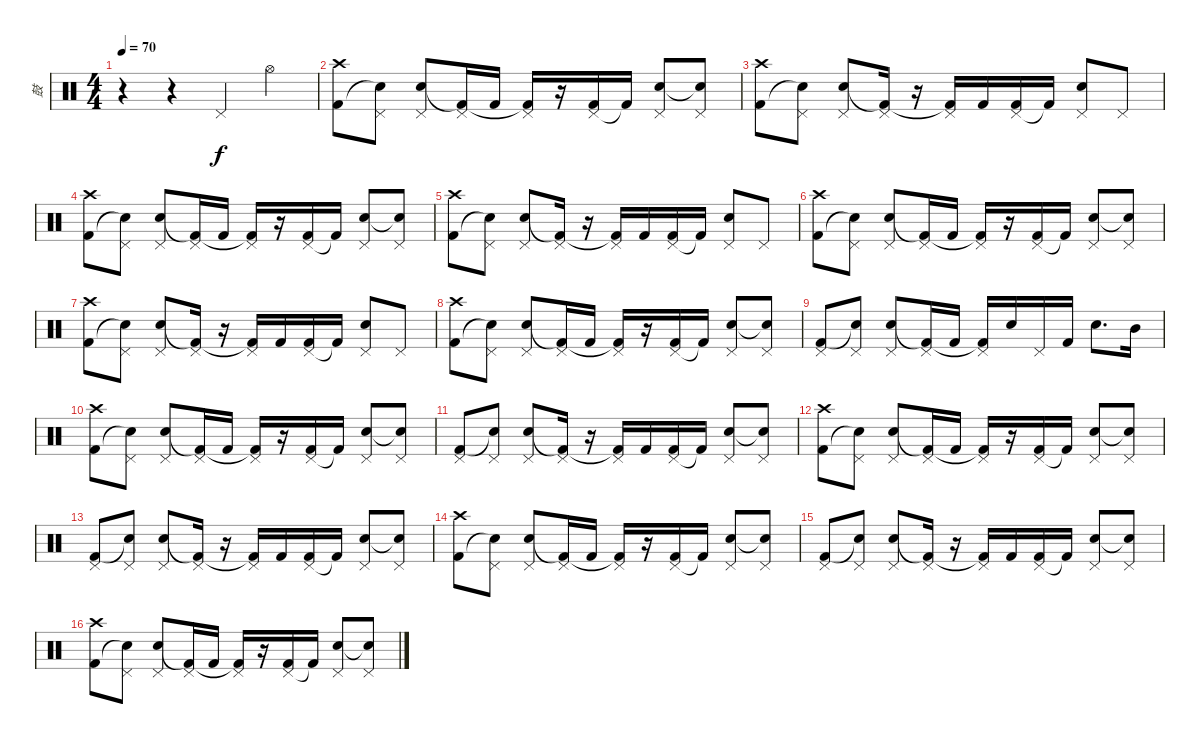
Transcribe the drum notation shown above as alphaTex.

\track ("鼓" "鼓") {instrument percussion}
\staff {score}
\articulation defaults
\ts (4 4)
\tempo 70
\clef neutral
\ks c
r.4{dy f} r.4 "Pedal Hi-Hat (hit)".4 "Hi-Hat (open)".4 |
("Crash high (hit)" "Kick (hit) 2").8 ("Pedal Hi-Hat (hit)" "Snare (hit)"{t}).8 ("Pedal Hi-Hat (hit)" "Electric Snare (hit)").8 ("Pedal Hi-Hat (hit)" "Kick (hit) 2"{t}).16 "Kick (hit) 2".16 ("Pedal Hi-Hat (hit)" "Kick (hit) 2"{t}).16 r.16 ("Pedal Hi-Hat (hit)" "Kick (hit) 2").16 "Kick (hit) 2"{t}.16 ("Pedal Hi-Hat (hit)" "Electric Snare (hit)").8 ("Pedal Hi-Hat (hit)" "Snare (hit)"{t}).8 |
("Crash high (hit)" "Kick (hit) 2").8 ("Pedal Hi-Hat (hit)" "Snare (hit)"{t}).8 ("Pedal Hi-Hat (hit)" "Electric Snare (hit)").8 ("Pedal Hi-Hat (hit)" "Kick (hit) 2"{t}).16 r.16 ("Pedal Hi-Hat (hit)" "Kick (hit) 2"{t}).16 "Kick (hit) 2".16 ("Pedal Hi-Hat (hit)" "Kick (hit) 2").16 "Kick (hit) 2"{t}.16 ("Pedal Hi-Hat (hit)" "Electric Snare (hit)").8 "Pedal Hi-Hat (hit)".8 |
("Crash high (hit)" "Kick (hit) 2").8 ("Pedal Hi-Hat (hit)" "Snare (hit)"{t}).8 ("Pedal Hi-Hat (hit)" "Electric Snare (hit)").8 ("Pedal Hi-Hat (hit)" "Kick (hit) 2"{t}).16 "Kick (hit) 2".16 ("Pedal Hi-Hat (hit)" "Kick (hit) 2"{t}).16 r.16 ("Pedal Hi-Hat (hit)" "Kick (hit) 2").16 "Kick (hit) 2"{t}.16 ("Pedal Hi-Hat (hit)" "Electric Snare (hit)").8 ("Pedal Hi-Hat (hit)" "Snare (hit)"{t}).8 |
("Crash high (hit)" "Kick (hit) 2").8 ("Pedal Hi-Hat (hit)" "Snare (hit)"{t}).8 ("Pedal Hi-Hat (hit)" "Electric Snare (hit)").8 ("Pedal Hi-Hat (hit)" "Kick (hit) 2"{t}).16 r.16 ("Pedal Hi-Hat (hit)" "Kick (hit) 2"{t}).16 "Kick (hit) 2".16 ("Pedal Hi-Hat (hit)" "Kick (hit) 2").16 "Kick (hit) 2"{t}.16 ("Pedal Hi-Hat (hit)" "Electric Snare (hit)").8 "Pedal Hi-Hat (hit)".8 |
("Crash high (hit)" "Kick (hit) 2").8 ("Pedal Hi-Hat (hit)" "Snare (hit)"{t}).8 ("Pedal Hi-Hat (hit)" "Electric Snare (hit)").8 ("Pedal Hi-Hat (hit)" "Kick (hit) 2"{t}).16 "Kick (hit) 2".16 ("Pedal Hi-Hat (hit)" "Kick (hit) 2"{t}).16 r.16 ("Pedal Hi-Hat (hit)" "Kick (hit) 2").16 "Kick (hit) 2"{t}.16 ("Pedal Hi-Hat (hit)" "Electric Snare (hit)").8 ("Pedal Hi-Hat (hit)" "Snare (hit)"{t}).8 |
("Crash high (hit)" "Kick (hit) 2").8 ("Pedal Hi-Hat (hit)" "Snare (hit)"{t}).8 ("Pedal Hi-Hat (hit)" "Electric Snare (hit)").8 ("Pedal Hi-Hat (hit)" "Kick (hit) 2"{t}).16 r.16 ("Pedal Hi-Hat (hit)" "Kick (hit) 2"{t}).16 "Kick (hit) 2".16 ("Pedal Hi-Hat (hit)" "Kick (hit) 2").16 "Kick (hit) 2"{t}.16 ("Pedal Hi-Hat (hit)" "Electric Snare (hit)").8 "Pedal Hi-Hat (hit)".8 |
("Crash high (hit)" "Kick (hit) 2").8 ("Pedal Hi-Hat (hit)" "Snare (hit)"{t}).8 ("Pedal Hi-Hat (hit)" "Electric Snare (hit)").8 ("Pedal Hi-Hat (hit)" "Kick (hit) 2"{t}).16 "Kick (hit) 2".16 ("Pedal Hi-Hat (hit)" "Kick (hit) 2"{t}).16 r.16 ("Pedal Hi-Hat (hit)" "Kick (hit) 2").16 "Kick (hit) 2"{t}.16 ("Pedal Hi-Hat (hit)" "Electric Snare (hit)").8 ("Pedal Hi-Hat (hit)" "Snare (hit)"{t}).8 |
("Pedal Hi-Hat (hit)" "Kick (hit) 2").8 ("Pedal Hi-Hat (hit)" "Snare (hit)"{t}).8 ("Pedal Hi-Hat (hit)" "Electric Snare (hit)").8 ("Pedal Hi-Hat (hit)" "Kick (hit) 2"{t}).16 "Kick (hit) 2".16 ("Pedal Hi-Hat (hit)" "Kick (hit) 2"{t}).16 "Electric Snare (hit)".16 "Pedal Hi-Hat (hit)".16 "Kick (hit) 2".16 "Electric Snare (hit)".8{d} "Mid Tom (hit)".16 |
("Crash high (hit)" "Kick (hit) 2").8 ("Pedal Hi-Hat (hit)" "Snare (hit)"{t}).8 ("Pedal Hi-Hat (hit)" "Electric Snare (hit)").8 ("Pedal Hi-Hat (hit)" "Kick (hit) 2"{t}).16 "Kick (hit) 2".16 ("Pedal Hi-Hat (hit)" "Kick (hit) 2"{t}).16 r.16 ("Pedal Hi-Hat (hit)" "Kick (hit) 2").16 "Kick (hit) 2"{t}.16 ("Pedal Hi-Hat (hit)" "Electric Snare (hit)").8 ("Pedal Hi-Hat (hit)" "Snare (hit)"{t}).8 |
("Pedal Hi-Hat (hit)" "Kick (hit) 2").8 ("Pedal Hi-Hat (hit)" "Snare (hit)"{t}).8 ("Pedal Hi-Hat (hit)" "Electric Snare (hit)").8 ("Pedal Hi-Hat (hit)" "Kick (hit) 2"{t}).16 r.16 ("Pedal Hi-Hat (hit)" "Kick (hit) 2"{t}).16 "Kick (hit) 2".16 ("Pedal Hi-Hat (hit)" "Kick (hit) 2").16 "Kick (hit) 2"{t}.16 ("Pedal Hi-Hat (hit)" "Electric Snare (hit)").8 ("Pedal Hi-Hat (hit)" "Snare (hit)"{t}).8 |
("Crash high (hit)" "Kick (hit) 2").8 ("Pedal Hi-Hat (hit)" "Snare (hit)"{t}).8 ("Pedal Hi-Hat (hit)" "Electric Snare (hit)").8 ("Pedal Hi-Hat (hit)" "Kick (hit) 2"{t}).16 "Kick (hit) 2".16 ("Pedal Hi-Hat (hit)" "Kick (hit) 2"{t}).16 r.16 ("Pedal Hi-Hat (hit)" "Kick (hit) 2").16 "Kick (hit) 2"{t}.16 ("Pedal Hi-Hat (hit)" "Electric Snare (hit)").8 ("Pedal Hi-Hat (hit)" "Snare (hit)"{t}).8 |
("Pedal Hi-Hat (hit)" "Kick (hit) 2").8 ("Pedal Hi-Hat (hit)" "Snare (hit)"{t}).8 ("Pedal Hi-Hat (hit)" "Electric Snare (hit)").8 ("Pedal Hi-Hat (hit)" "Kick (hit) 2"{t}).16 r.16 ("Pedal Hi-Hat (hit)" "Kick (hit) 2"{t}).16 "Kick (hit) 2".16 ("Pedal Hi-Hat (hit)" "Kick (hit) 2").16 "Kick (hit) 2"{t}.16 ("Pedal Hi-Hat (hit)" "Electric Snare (hit)").8 ("Pedal Hi-Hat (hit)" "Snare (hit)"{t}).8 |
("Crash high (hit)" "Kick (hit) 2").8 ("Pedal Hi-Hat (hit)" "Snare (hit)"{t}).8 ("Pedal Hi-Hat (hit)" "Electric Snare (hit)").8 ("Pedal Hi-Hat (hit)" "Kick (hit) 2"{t}).16 "Kick (hit) 2".16 ("Pedal Hi-Hat (hit)" "Kick (hit) 2"{t}).16 r.16 ("Pedal Hi-Hat (hit)" "Kick (hit) 2").16 "Kick (hit) 2"{t}.16 ("Pedal Hi-Hat (hit)" "Electric Snare (hit)").8 ("Pedal Hi-Hat (hit)" "Snare (hit)"{t}).8 |
("Pedal Hi-Hat (hit)" "Kick (hit) 2").8 ("Pedal Hi-Hat (hit)" "Snare (hit)"{t}).8 ("Pedal Hi-Hat (hit)" "Electric Snare (hit)").8 ("Pedal Hi-Hat (hit)" "Kick (hit) 2"{t}).16 r.16 ("Pedal Hi-Hat (hit)" "Kick (hit) 2"{t}).16 "Kick (hit) 2".16 ("Pedal Hi-Hat (hit)" "Kick (hit) 2").16 "Kick (hit) 2"{t}.16 ("Pedal Hi-Hat (hit)" "Electric Snare (hit)").8 ("Pedal Hi-Hat (hit)" "Snare (hit)"{t}).8 |
("Crash high (hit)" "Kick (hit) 2").8 ("Pedal Hi-Hat (hit)" "Snare (hit)"{t}).8 ("Pedal Hi-Hat (hit)" "Electric Snare (hit)").8 ("Pedal Hi-Hat (hit)" "Kick (hit) 2"{t}).16 "Kick (hit) 2".16 ("Pedal Hi-Hat (hit)" "Kick (hit) 2"{t}).16 r.16 ("Pedal Hi-Hat (hit)" "Kick (hit) 2").16 "Kick (hit) 2"{t}.16 ("Pedal Hi-Hat (hit)" "Electric Snare (hit)").8 ("Pedal Hi-Hat (hit)" "Snare (hit)"{t}).8
